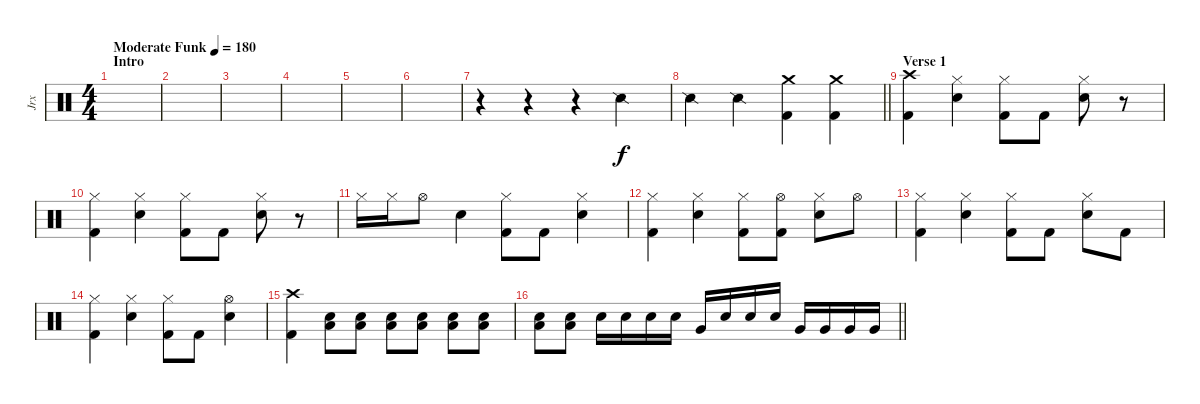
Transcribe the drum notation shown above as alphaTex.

\track ("Jrx" "Jrx") {instrument percussion}
\staff {score}
\articulation defaults
\ts (4 4)
\section ("" "Intro")
\tempo (180 "Moderate Funk")
\clef neutral
\ks c
|
|
|
|
|
|
r.4 r.4 r.4 "Snare (side stick) 2".4 |
\barLineRight lightlight "Snare (side stick) 2".4 "Snare (side stick) 2".4
("Crash medium (hit)" "Kick (hit) 2").4 ("Crash medium (hit)" "Kick (hit) 2").4 |
\section ("" "Verse 1")
("Kick (hit) 2" "Crash high (hit)").4 ("Electric Snare (hit)" "Hi-Hat (closed)").4 ("Kick (hit) 2" "Hi-Hat (closed)").8 "Kick (hit) 2".8 ("Electric Snare (hit)" "Hi-Hat (closed)").8 r.8 |
("Kick (hit) 2" "Hi-Hat (closed)").4 ("Electric Snare (hit)" "Hi-Hat (closed)").4 ("Kick (hit) 2" "Hi-Hat (closed)").8 "Kick (hit) 2".8 ("Electric Snare (hit)" "Hi-Hat (closed)").8 r.8 |
"Hi-Hat (closed)".16 "Hi-Hat (closed)".16 "Hi-Hat (open)".8 "Electric Snare (hit)".4 ("Kick (hit) 2" "Hi-Hat (closed)").8 "Kick (hit) 2".8 ("Electric Snare (hit)" "Hi-Hat (closed)").4 |
("Kick (hit) 2" "Hi-Hat (closed)").4 ("Electric Snare (hit)" "Hi-Hat (closed)").4 ("Kick (hit) 2" "Hi-Hat (closed)").8 ("Kick (hit) 2" "Hi-Hat (open)").8 ("Electric Snare (hit)" "Hi-Hat (closed)").8 "Hi-Hat (open)".8 |
("Kick (hit) 2" "Hi-Hat (closed)").4 ("Electric Snare (hit)" "Hi-Hat (closed)").4 ("Kick (hit) 2" "Hi-Hat (closed)").8 "Kick (hit) 2".8 ("Electric Snare (hit)" "Hi-Hat (closed)").8 "Kick (hit) 2".8 |
("Kick (hit) 2" "Hi-Hat (closed)").4 ("Electric Snare (hit)" "Hi-Hat (closed)").4 ("Kick (hit) 2" "Hi-Hat (closed)").8 "Kick (hit) 2".8 ("Electric Snare (hit)" "Hi-Hat (open)").4 |
("Kick (hit) 2" "Crash high (hit)").4 ("Electric Snare (hit)" "Low Floor Tom (hit)").8 ("Electric Snare (hit)" "Low Floor Tom (hit)").8 ("Electric Snare (hit)" "Low Floor Tom (hit)").8 ("Electric Snare (hit)" "Low Floor Tom (hit)").8 ("Electric Snare (hit)" "Low Floor Tom (hit)").8 ("Electric Snare (hit)" "Low Floor Tom (hit)").8 |
\barLineRight lightlight
("Electric Snare (hit)" "Low Floor Tom (hit)").8 ("Electric Snare (hit)" "Low Floor Tom (hit)").8 "Electric Snare (hit)".16 "Electric Snare (hit)".16 "Electric Snare (hit)".16 "Electric Snare (hit)".16 "Very Low Tom (hit)".16 "Electric Snare (hit)".16 "Electric Snare (hit)".16 "Electric Snare (hit)".16 "Very Low Tom (hit)".16 "Very Low Tom (hit)".16 "Very Low Tom (hit)".16 "Very Low Tom (hit)".16
